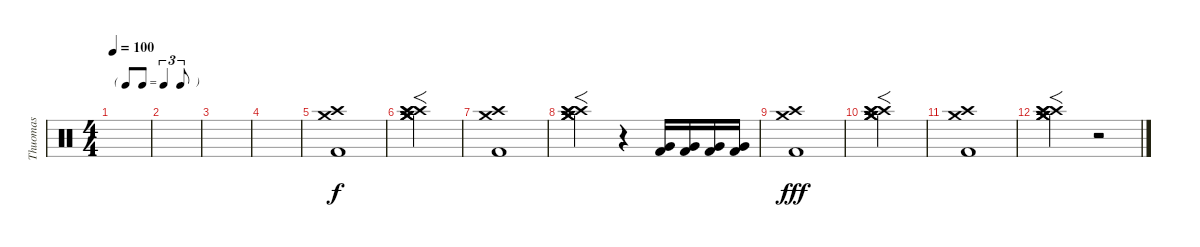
\track ("Thuomas" "Thuomas") {instrument percussion}
\staff {score}
\articulation defaults
\ts (4 4)
\tf triplet8th
\tempo 100
\clef neutral
\ks c
|
|
|
|
("Crash medium (hit)" "Crash high (hit)" "Kick (hit) 2").1 |
("Crash medium (hit)" "Crash medium (hit)" "Crash medium (hit)" "Crash high (hit)" "Crash high (hit)" "Crash high (hit)").2{f} |
("Crash medium (hit)" "Crash high (hit)" "Kick (hit) 2").1 |
("Crash medium (hit)" "Crash medium (hit)" "Crash medium (hit)" "Crash high (hit)" "Crash high (hit)" "Crash high (hit)").2{f} r.4 ("Very Low Tom (hit)" "Kick (hit) 2").16{dy f} ("Very Low Tom (hit)" "Kick (hit) 2").16 ("Very Low Tom (hit)" "Kick (hit) 2").16 ("Very Low Tom (hit)" "Kick (hit) 2").16 |
("Crash medium (hit)" "Crash high (hit)" "Kick (hit) 2").1{dy fff} |
("Crash medium (hit)" "Crash medium (hit)" "Crash medium (hit)" "Crash high (hit)" "Crash high (hit)" "Crash high (hit)").2{f} |
("Crash medium (hit)" "Crash high (hit)" "Kick (hit) 2").1 |
("Crash medium (hit)" "Crash medium (hit)" "Crash medium (hit)" "Crash high (hit)" "Crash high (hit)" "Crash high (hit)").2{f} r.2
